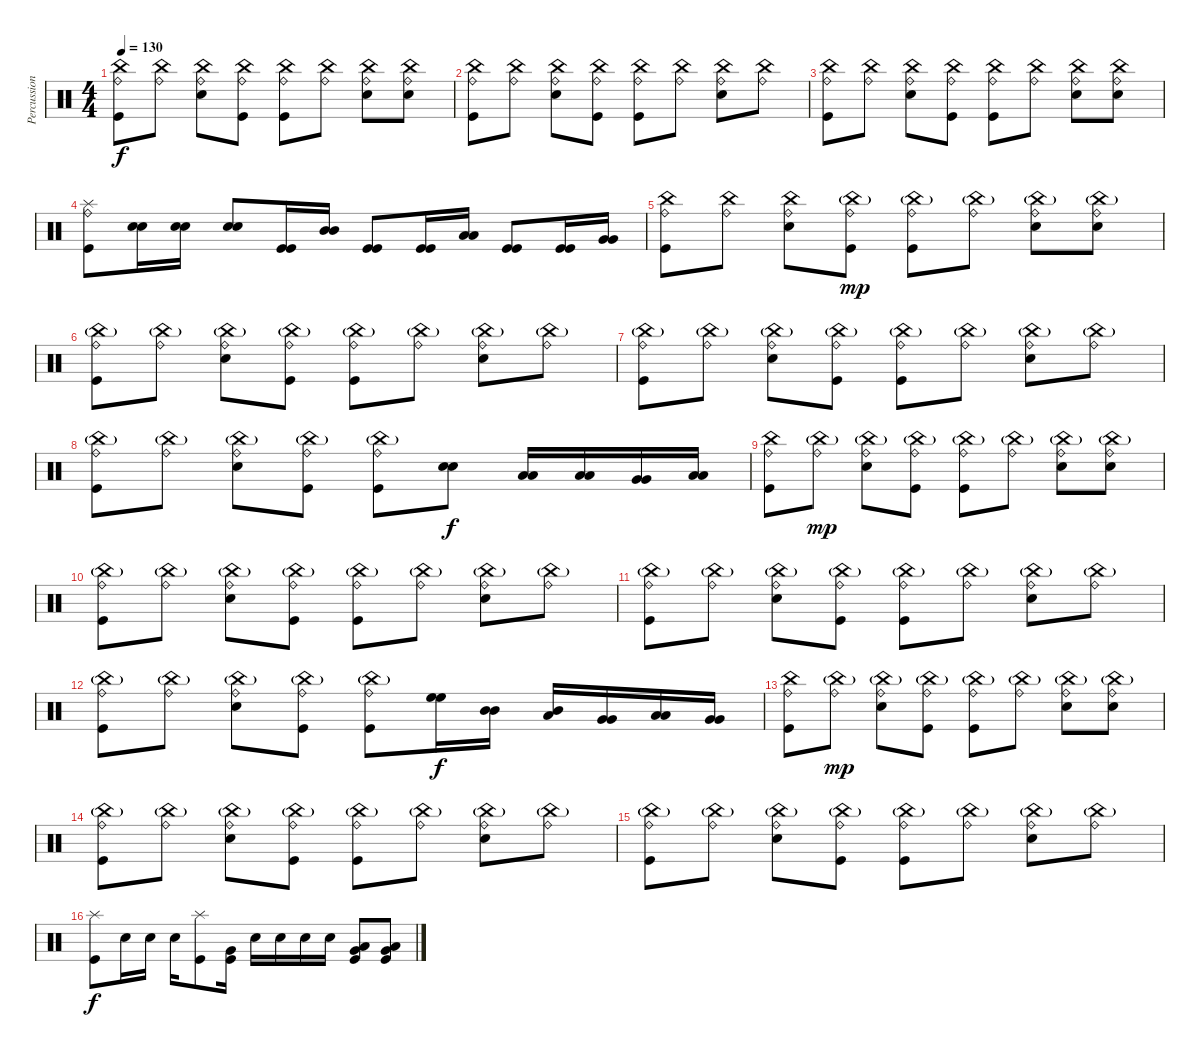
\track ("Percussion" "Percussion") {instrument percussion}
\staff {score}
\articulation defaults
\ts (4 4)
\tempo 130
\clef neutral
\ks c
("China (hit)" "Ride (bell)" "Kick (hit)").8{dy f} ("China (hit)" "Ride (bell)").8 ("China (hit)" "Ride (bell)" "Electric Snare (hit)").8 ("China (hit)" "Ride (bell)" "Kick (hit)").8 ("China (hit)" "Ride (bell)" "Kick (hit)").8 ("China (hit)" "Ride (bell)").8 ("China (hit)" "Ride (bell)" "Electric Snare (hit)").8 ("China (hit)" "Ride (bell)" "Electric Snare (hit)").8 |
("China (hit)" "Ride (bell)" "Kick (hit)").8 ("China (hit)" "Ride (bell)").8 ("China (hit)" "Ride (bell)" "Electric Snare (hit)").8 ("China (hit)" "Ride (bell)" "Kick (hit)").8 ("China (hit)" "Ride (bell)" "Kick (hit)").8 ("China (hit)" "Ride (bell)").8 ("China (hit)" "Ride (bell)" "Electric Snare (hit)").8 ("China (hit)" "Ride (bell)").8 |
("China (hit)" "Ride (bell)" "Kick (hit)").8 ("China (hit)" "Ride (bell)").8 ("China (hit)" "Ride (bell)" "Electric Snare (hit)").8 ("China (hit)" "Ride (bell)" "Kick (hit)").8 ("China (hit)" "Ride (bell)" "Kick (hit)").8 ("China (hit)" "Ride (bell)").8 ("China (hit)" "Ride (bell)" "Electric Snare (hit)").8 ("China (hit)" "Ride (bell)" "Electric Snare (hit)").8 |
("Splash (hit)" "Ride (bell)" "Kick (hit)").8 ("Electric Snare (hit)" "Electric Snare (hit)").16 ("Electric Snare (hit)" "Electric Snare (hit)").16 ("Electric Snare (hit)" "Electric Snare (hit)").8 ("Kick (hit)" "Kick (hit)").16 ("Mid Tom (hit)" "Mid Tom (hit)").16 ("Kick (hit)" "Kick (hit)").8 ("Kick (hit)" "Kick (hit)").16 ("Low Tom (hit)" "Low Tom (hit)").16 ("Kick (hit)" "Kick (hit)").8 ("Kick (hit)" "Kick (hit)").16 ("Very Low Tom (hit)" "Very Low Tom (hit)").16 |
("China (hit)" "Ride (bell)" "Kick (hit)").8 ("China (hit)" "Ride (bell)").8 ("China (hit)" "Ride (bell)" "Electric Snare (hit)").8 ("China (hit)"{g} "Ride (bell)" "Kick (hit)").8{dy mp} ("China (hit)"{g} "Ride (bell)" "Kick (hit)").8 ("China (hit)"{g} "Ride (bell)").8 ("China (hit)"{g} "Ride (bell)" "Electric Snare (hit)").8 ("China (hit)"{g} "Ride (bell)" "Electric Snare (hit)").8 |
("China (hit)"{g} "Ride (bell)" "Kick (hit)").8 ("China (hit)"{g} "Ride (bell)").8 ("China (hit)"{g} "Ride (bell)" "Electric Snare (hit)").8 ("China (hit)"{g} "Ride (bell)" "Kick (hit)").8 ("China (hit)"{g} "Ride (bell)" "Kick (hit)").8 ("China (hit)"{g} "Ride (bell)").8 ("China (hit)"{g} "Ride (bell)" "Electric Snare (hit)").8 ("China (hit)"{g} "Ride (bell)").8 |
("China (hit)"{g} "Ride (bell)" "Kick (hit)").8 ("China (hit)"{g} "Ride (bell)").8 ("China (hit)"{g} "Ride (bell)" "Electric Snare (hit)").8 ("China (hit)"{g} "Ride (bell)" "Kick (hit)").8 ("China (hit)"{g} "Ride (bell)" "Kick (hit)").8 ("China (hit)"{g} "Ride (bell)").8 ("China (hit)"{g} "Ride (bell)" "Electric Snare (hit)").8 ("China (hit)"{g} "Ride (bell)").8 |
("China (hit)"{g} "Ride (bell)" "Kick (hit)").8 ("China (hit)"{g} "Ride (bell)").8 ("China (hit)"{g} "Ride (bell)" "Electric Snare (hit)").8 ("China (hit)"{g} "Ride (bell)" "Kick (hit)").8 ("China (hit)"{g} "Ride (bell)" "Kick (hit)").8 ("Electric Snare (hit)" "Electric Snare (hit)").8{dy f} ("Low Tom (hit)" "Low Tom (hit)").16 ("Low Tom (hit)" "Low Tom (hit)").16 ("Very Low Tom (hit)" "Very Low Tom (hit)").16 ("Low Floor Tom (hit)" "Low Floor Tom (hit)").16 |
("China (hit)" "Ride (bell)" "Kick (hit)").8 ("China (hit)"{g} "Ride (bell)").8{dy mp} ("China (hit)"{g} "Ride (bell)" "Electric Snare (hit)").8 ("China (hit)"{g} "Ride (bell)" "Kick (hit)").8 ("China (hit)"{g} "Ride (bell)" "Kick (hit)").8 ("China (hit)"{g} "Ride (bell)").8 ("China (hit)"{g} "Ride (bell)" "Electric Snare (hit)").8 ("China (hit)"{g} "Ride (bell)" "Electric Snare (hit)").8 |
("China (hit)"{g} "Ride (bell)" "Kick (hit)").8 ("China (hit)"{g} "Ride (bell)").8 ("China (hit)"{g} "Ride (bell)" "Electric Snare (hit)").8 ("China (hit)"{g} "Ride (bell)" "Kick (hit)").8 ("China (hit)"{g} "Ride (bell)" "Kick (hit)").8 ("China (hit)"{g} "Ride (bell)").8 ("China (hit)"{g} "Ride (bell)" "Electric Snare (hit)").8 ("China (hit)"{g} "Ride (bell)").8 |
("China (hit)"{g} "Ride (bell)" "Kick (hit)").8 ("China (hit)"{g} "Ride (bell)").8 ("China (hit)"{g} "Ride (bell)" "Electric Snare (hit)").8 ("China (hit)"{g} "Ride (bell)" "Kick (hit)").8 ("China (hit)"{g} "Ride (bell)" "Kick (hit)").8 ("China (hit)"{g} "Ride (bell)").8 ("China (hit)"{g} "Ride (bell)" "Electric Snare (hit)").8 ("China (hit)"{g} "Ride (bell)").8 |
("China (hit)"{g} "Ride (bell)" "Kick (hit)").8 ("China (hit)"{g} "Ride (bell)").8 ("China (hit)"{g} "Ride (bell)" "Electric Snare (hit)").8 ("China (hit)"{g} "Ride (bell)" "Kick (hit)").8 ("China (hit)"{g} "Ride (bell)" "Kick (hit)").8 ("High Floor Tom (hit)" "High Floor Tom (hit)").16{dy f} ("Mid Tom (hit)" "Mid Tom (hit)").16 ("Mid Tom (hit)" "Low Tom (hit)").16 ("Very Low Tom (hit)" "Very Low Tom (hit)").16 ("Low Tom (hit)" "Low Floor Tom (hit)").16 ("Very Low Tom (hit)" "Very Low Tom (hit)").16 |
("China (hit)" "Ride (bell)" "Kick (hit)").8 ("China (hit)"{g} "Ride (bell)").8{dy mp} ("China (hit)"{g} "Ride (bell)" "Electric Snare (hit)").8 ("China (hit)"{g} "Ride (bell)" "Kick (hit)").8 ("China (hit)"{g} "Ride (bell)" "Kick (hit)").8 ("China (hit)"{g} "Ride (bell)").8 ("China (hit)"{g} "Ride (bell)" "Electric Snare (hit)").8 ("China (hit)"{g} "Ride (bell)" "Electric Snare (hit)").8 |
("China (hit)"{g} "Ride (bell)" "Kick (hit)").8 ("China (hit)"{g} "Ride (bell)").8 ("China (hit)"{g} "Ride (bell)" "Electric Snare (hit)").8 ("China (hit)"{g} "Ride (bell)" "Kick (hit)").8 ("China (hit)"{g} "Ride (bell)" "Kick (hit)").8 ("China (hit)"{g} "Ride (bell)").8 ("China (hit)"{g} "Ride (bell)" "Electric Snare (hit)").8 ("China (hit)"{g} "Ride (bell)").8 |
("China (hit)"{g} "Ride (bell)" "Kick (hit)").8 ("China (hit)"{g} "Ride (bell)").8 ("China (hit)"{g} "Ride (bell)" "Electric Snare (hit)").8 ("China (hit)"{g} "Ride (bell)" "Kick (hit)").8 ("China (hit)"{g} "Ride (bell)" "Kick (hit)").8 ("China (hit)"{g} "Ride (bell)").8 ("China (hit)"{g} "Ride (bell)" "Electric Snare (hit)").8 ("China (hit)"{g} "Ride (bell)").8 |
("Splash (hit)" "Kick (hit)").8{dy f} "Electric Snare (hit)".16 "Electric Snare (hit)".16 "Electric Snare (hit)".16 ("Splash (hit)" "Kick (hit)").8 ("Very Low Tom (hit)" "Kick (hit)").16 "Electric Snare (hit)".16 "Electric Snare (hit)".16 "Electric Snare (hit)".16 "Electric Snare (hit)".16 ("Low Floor Tom (hit)" "Very Low Tom (hit)" "Kick (hit)").8 ("Low Floor Tom (hit)" "Very Low Tom (hit)" "Kick (hit)").8
